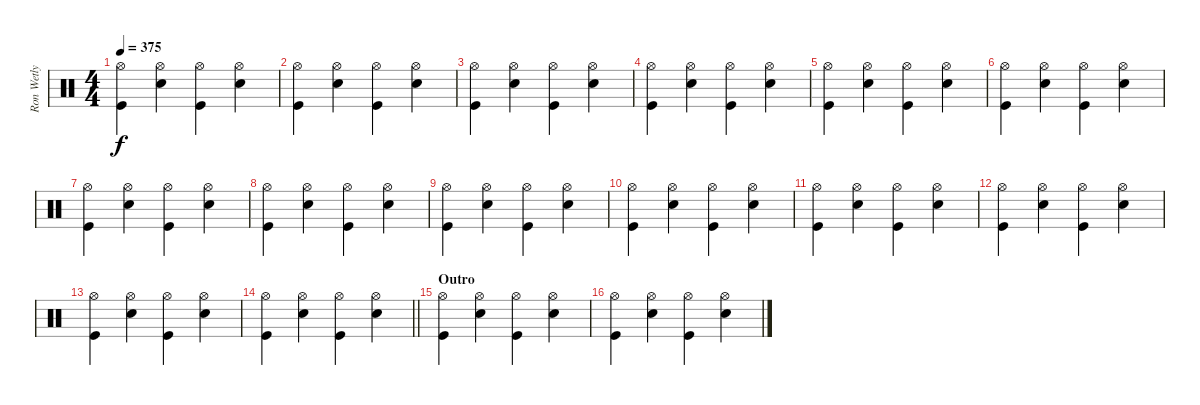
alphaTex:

\track ("Ron Wetly (Drums)" "Ron Wetly ") {instrument percussion}
\staff {score}
\articulation defaults
\ts (4 4)
\tempo 375
\clef neutral
\ks c
("Hi-Hat (open)" "Kick (hit)").4{dy f} ("Hi-Hat (open)" "Snare (hit) 2").4 ("Hi-Hat (open)" "Kick (hit)").4 ("Hi-Hat (open)" "Snare (hit) 2").4 |
("Hi-Hat (open)" "Kick (hit)").4 ("Hi-Hat (open)" "Snare (hit) 2").4 ("Hi-Hat (open)" "Kick (hit)").4 ("Hi-Hat (open)" "Snare (hit) 2").4 |
("Hi-Hat (open)" "Kick (hit)").4 ("Hi-Hat (open)" "Snare (hit) 2").4 ("Hi-Hat (open)" "Kick (hit)").4 ("Hi-Hat (open)" "Snare (hit) 2").4 |
("Hi-Hat (open)" "Kick (hit)").4 ("Hi-Hat (open)" "Snare (hit) 2").4 ("Hi-Hat (open)" "Kick (hit)").4 ("Hi-Hat (open)" "Snare (hit) 2").4 |
("Hi-Hat (open)" "Kick (hit)").4 ("Hi-Hat (open)" "Snare (hit) 2").4 ("Hi-Hat (open)" "Kick (hit)").4 ("Hi-Hat (open)" "Snare (hit) 2").4 |
("Hi-Hat (open)" "Kick (hit)").4 ("Hi-Hat (open)" "Snare (hit) 2").4 ("Hi-Hat (open)" "Kick (hit)").4 ("Hi-Hat (open)" "Snare (hit) 2").4 |
("Hi-Hat (open)" "Kick (hit)").4 ("Hi-Hat (open)" "Snare (hit) 2").4 ("Hi-Hat (open)" "Kick (hit)").4 ("Hi-Hat (open)" "Snare (hit) 2").4 |
("Hi-Hat (open)" "Kick (hit)").4 ("Hi-Hat (open)" "Snare (hit) 2").4 ("Hi-Hat (open)" "Kick (hit)").4 ("Hi-Hat (open)" "Snare (hit) 2").4 |
("Hi-Hat (open)" "Kick (hit)").4 ("Hi-Hat (open)" "Snare (hit) 2").4 ("Hi-Hat (open)" "Kick (hit)").4 ("Hi-Hat (open)" "Snare (hit) 2").4 |
("Hi-Hat (open)" "Kick (hit)").4 ("Hi-Hat (open)" "Snare (hit) 2").4 ("Hi-Hat (open)" "Kick (hit)").4 ("Hi-Hat (open)" "Snare (hit) 2").4 |
("Hi-Hat (open)" "Kick (hit)").4 ("Hi-Hat (open)" "Snare (hit) 2").4 ("Hi-Hat (open)" "Kick (hit)").4 ("Hi-Hat (open)" "Snare (hit) 2").4 |
("Hi-Hat (open)" "Kick (hit)").4 ("Hi-Hat (open)" "Snare (hit) 2").4 ("Hi-Hat (open)" "Kick (hit)").4 ("Hi-Hat (open)" "Snare (hit) 2").4 |
("Hi-Hat (open)" "Kick (hit)").4 ("Hi-Hat (open)" "Snare (hit) 2").4 ("Hi-Hat (open)" "Kick (hit)").4 ("Hi-Hat (open)" "Snare (hit) 2").4 |
\barLineRight lightlight
("Hi-Hat (open)" "Kick (hit)").4 ("Hi-Hat (open)" "Snare (hit) 2").4 ("Hi-Hat (open)" "Kick (hit)").4 ("Hi-Hat (open)" "Snare (hit) 2").4 |
\section ("" "Outro")
("Hi-Hat (open)" "Kick (hit)").4 ("Hi-Hat (open)" "Snare (hit) 2").4 ("Hi-Hat (open)" "Kick (hit)").4 ("Hi-Hat (open)" "Snare (hit) 2").4 |
("Hi-Hat (open)" "Kick (hit)").4 ("Hi-Hat (open)" "Snare (hit) 2").4 ("Hi-Hat (open)" "Kick (hit)").4 ("Hi-Hat (open)" "Snare (hit) 2").4
